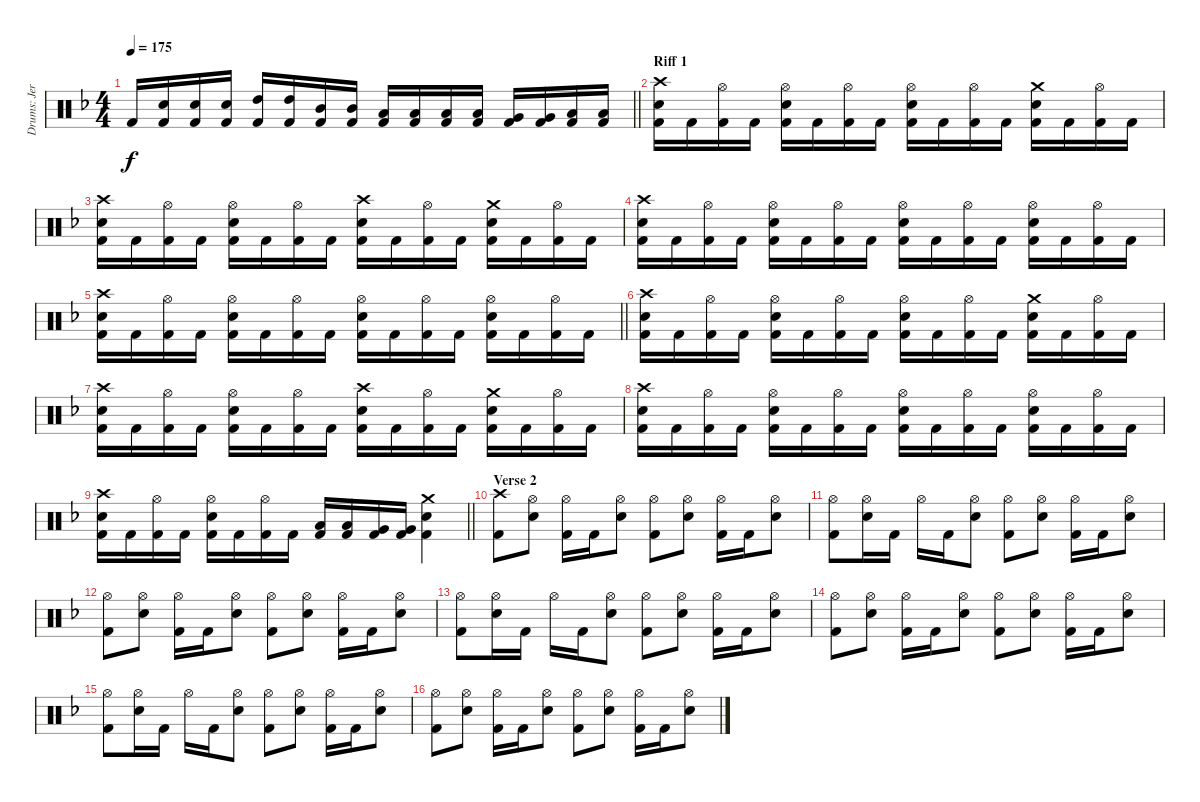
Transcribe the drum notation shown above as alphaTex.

\track ("Drums: Jere Luokkamäki" "Drums: Jer") {instrument percussion}
\staff {score}
\articulation defaults
\ts (4 4)
\tempo 175
\clef neutral
\barLineRight lightlight
\ks dminor "Kick (hit) 2".16{dy f}
("Electric Snare (hit)" "Kick (hit) 2").16 ("Electric Snare (hit)" "Kick (hit) 2").16 ("Electric Snare (hit)" "Kick (hit) 2").16 ("High Tom (hit)" "Kick (hit) 2").16 ("High Tom (hit)" "Kick (hit) 2").16 ("Mid Tom (hit)" "Kick (hit) 2").16 ("Mid Tom (hit)" "Kick (hit) 2").16 ("Low Tom (hit)" "Kick (hit) 2").16 ("Low Tom (hit)" "Kick (hit) 2").16 ("Low Tom (hit)" "Kick (hit) 2").16 ("Low Tom (hit)" "Kick (hit) 2").16 ("Very Low Tom (hit)" "Kick (hit) 2").16 ("Very Low Tom (hit)" "Kick (hit) 2").16 ("Low Floor Tom (hit)" "Kick (hit) 2").16 ("Low Floor Tom (hit)" "Kick (hit) 2").16 |
\section ("" "Riff 1")
("Crash high (hit)" "Electric Snare (hit)" "Kick (hit) 2").16 "Kick (hit) 2".16 ("Hi-Hat (open)" "Kick (hit) 2").16 "Kick (hit) 2".16 ("Hi-Hat (open)" "Electric Snare (hit)" "Kick (hit) 2").16 "Kick (hit) 2".16 ("Hi-Hat (open)" "Kick (hit) 2").16 "Kick (hit) 2".16 ("Hi-Hat (open)" "Electric Snare (hit)" "Kick (hit) 2").16 "Kick (hit) 2".16 ("Hi-Hat (open)" "Kick (hit) 2").16 "Kick (hit) 2".16 ("Crash medium (hit)" "Electric Snare (hit)" "Kick (hit) 2").16 "Kick (hit) 2".16 ("Hi-Hat (open)" "Kick (hit) 2").16 "Kick (hit) 2".16 |
("Crash high (hit)" "Electric Snare (hit)" "Kick (hit) 2").16 "Kick (hit) 2".16 ("Hi-Hat (open)" "Kick (hit) 2").16 "Kick (hit) 2".16 ("Hi-Hat (open)" "Electric Snare (hit)" "Kick (hit) 2").16 "Kick (hit) 2".16 ("Hi-Hat (open)" "Kick (hit) 2").16 "Kick (hit) 2".16 ("Crash high (hit)" "Electric Snare (hit)" "Kick (hit) 2").16 "Kick (hit) 2".16 ("Hi-Hat (open)" "Kick (hit) 2").16 "Kick (hit) 2".16 ("Crash medium (hit)" "Electric Snare (hit)" "Kick (hit) 2").16 "Kick (hit) 2".16 ("Hi-Hat (open)" "Kick (hit) 2").16 "Kick (hit) 2".16 |
("Crash high (hit)" "Electric Snare (hit)" "Kick (hit) 2").16 "Kick (hit) 2".16 ("Hi-Hat (open)" "Kick (hit) 2").16 "Kick (hit) 2".16 ("Hi-Hat (open)" "Electric Snare (hit)" "Kick (hit) 2").16 "Kick (hit) 2".16 ("Hi-Hat (open)" "Kick (hit) 2").16 "Kick (hit) 2".16 ("Hi-Hat (open)" "Electric Snare (hit)" "Kick (hit) 2").16 "Kick (hit) 2".16 ("Hi-Hat (open)" "Kick (hit) 2").16 "Kick (hit) 2".16 ("Hi-Hat (open)" "Electric Snare (hit)" "Kick (hit) 2").16 "Kick (hit) 2".16 ("Hi-Hat (open)" "Kick (hit) 2").16 "Kick (hit) 2".16 |
\barLineRight lightlight
("Crash high (hit)" "Electric Snare (hit)" "Kick (hit) 2").16 "Kick (hit) 2".16 ("Hi-Hat (open)" "Kick (hit) 2").16 "Kick (hit) 2".16 ("Hi-Hat (open)" "Electric Snare (hit)" "Kick (hit) 2").16 "Kick (hit) 2".16 ("Hi-Hat (open)" "Kick (hit) 2").16 "Kick (hit) 2".16 ("Hi-Hat (open)" "Electric Snare (hit)" "Kick (hit) 2").16 "Kick (hit) 2".16 ("Hi-Hat (open)" "Kick (hit) 2").16 "Kick (hit) 2".16 ("Hi-Hat (open)" "Electric Snare (hit)" "Kick (hit) 2").16 "Kick (hit) 2".16 ("Hi-Hat (open)" "Kick (hit) 2").16 "Kick (hit) 2".16 |
("Crash high (hit)" "Electric Snare (hit)" "Kick (hit) 2").16 "Kick (hit) 2".16 ("Hi-Hat (open)" "Kick (hit) 2").16 "Kick (hit) 2".16 ("Hi-Hat (open)" "Electric Snare (hit)" "Kick (hit) 2").16 "Kick (hit) 2".16 ("Hi-Hat (open)" "Kick (hit) 2").16 "Kick (hit) 2".16 ("Hi-Hat (open)" "Electric Snare (hit)" "Kick (hit) 2").16 "Kick (hit) 2".16 ("Hi-Hat (open)" "Kick (hit) 2").16 "Kick (hit) 2".16 ("Crash medium (hit)" "Electric Snare (hit)" "Kick (hit) 2").16 "Kick (hit) 2".16 ("Hi-Hat (open)" "Kick (hit) 2").16 "Kick (hit) 2".16 |
("Crash high (hit)" "Electric Snare (hit)" "Kick (hit) 2").16 "Kick (hit) 2".16 ("Hi-Hat (open)" "Kick (hit) 2").16 "Kick (hit) 2".16 ("Hi-Hat (open)" "Electric Snare (hit)" "Kick (hit) 2").16 "Kick (hit) 2".16 ("Hi-Hat (open)" "Kick (hit) 2").16 "Kick (hit) 2".16 ("Crash high (hit)" "Electric Snare (hit)" "Kick (hit) 2").16 "Kick (hit) 2".16 ("Hi-Hat (open)" "Kick (hit) 2").16 "Kick (hit) 2".16 ("Crash medium (hit)" "Electric Snare (hit)" "Kick (hit) 2").16 "Kick (hit) 2".16 ("Hi-Hat (open)" "Kick (hit) 2").16 "Kick (hit) 2".16 |
("Crash high (hit)" "Electric Snare (hit)" "Kick (hit) 2").16 "Kick (hit) 2".16 ("Hi-Hat (open)" "Kick (hit) 2").16 "Kick (hit) 2".16 ("Hi-Hat (open)" "Electric Snare (hit)" "Kick (hit) 2").16 "Kick (hit) 2".16 ("Hi-Hat (open)" "Kick (hit) 2").16 "Kick (hit) 2".16 ("Hi-Hat (open)" "Electric Snare (hit)" "Kick (hit) 2").16 "Kick (hit) 2".16 ("Hi-Hat (open)" "Kick (hit) 2").16 "Kick (hit) 2".16 ("Hi-Hat (open)" "Electric Snare (hit)" "Kick (hit) 2").16 "Kick (hit) 2".16 ("Hi-Hat (open)" "Kick (hit) 2").16 "Kick (hit) 2".16 |
\barLineRight lightlight
("Crash high (hit)" "Electric Snare (hit)" "Kick (hit) 2").16 "Kick (hit) 2".16 ("Hi-Hat (open)" "Kick (hit) 2").16 "Kick (hit) 2".16 ("Hi-Hat (open)" "Electric Snare (hit)" "Kick (hit) 2").16 "Kick (hit) 2".16 ("Hi-Hat (open)" "Kick (hit) 2").16 "Kick (hit) 2".16 ("Low Tom (hit)" "Kick (hit) 2").16 ("Low Tom (hit)" "Kick (hit) 2").16 ("Very Low Tom (hit)" "Kick (hit) 2").16 ("Very Low Tom (hit)" "Kick (hit) 2").16 ("Crash medium (hit)" "Electric Snare (hit)" "Kick (hit) 2").4 |
\section ("" "Verse 2")
("Crash high (hit)" "Kick (hit) 2").8 ("Hi-Hat (open)" "Electric Snare (hit)").8 ("Hi-Hat (open)" "Kick (hit) 2").16 "Kick (hit) 2".16 ("Hi-Hat (open)" "Electric Snare (hit)").8 ("Hi-Hat (open)" "Kick (hit) 2").8 ("Hi-Hat (open)" "Electric Snare (hit)").8 ("Hi-Hat (open)" "Kick (hit) 2").16 "Kick (hit) 2".16 ("Hi-Hat (open)" "Electric Snare (hit)").8 |
("Hi-Hat (open)" "Kick (hit) 2").8 ("Hi-Hat (open)" "Electric Snare (hit)").16 "Kick (hit) 2".16 "Hi-Hat (open)".16 "Kick (hit) 2".16 ("Hi-Hat (open)" "Electric Snare (hit)").8 ("Hi-Hat (open)" "Kick (hit) 2").8 ("Hi-Hat (open)" "Electric Snare (hit)").8 ("Hi-Hat (open)" "Kick (hit) 2").16 "Kick (hit) 2".16 ("Hi-Hat (open)" "Electric Snare (hit)").8 |
("Hi-Hat (open)" "Kick (hit) 2").8 ("Hi-Hat (open)" "Electric Snare (hit)").8 ("Hi-Hat (open)" "Kick (hit) 2").16 "Kick (hit) 2".16 ("Hi-Hat (open)" "Electric Snare (hit)").8 ("Hi-Hat (open)" "Kick (hit) 2").8 ("Hi-Hat (open)" "Electric Snare (hit)").8 ("Hi-Hat (open)" "Kick (hit) 2").16 "Kick (hit) 2".16 ("Hi-Hat (open)" "Electric Snare (hit)").8 |
("Hi-Hat (open)" "Kick (hit) 2").8 ("Hi-Hat (open)" "Electric Snare (hit)").16 "Kick (hit) 2".16 "Hi-Hat (open)".16 "Kick (hit) 2".16 ("Hi-Hat (open)" "Electric Snare (hit)").8 ("Hi-Hat (open)" "Kick (hit) 2").8 ("Hi-Hat (open)" "Electric Snare (hit)").8 ("Hi-Hat (open)" "Kick (hit) 2").16 "Kick (hit) 2".16 ("Hi-Hat (open)" "Electric Snare (hit)").8 |
("Hi-Hat (open)" "Kick (hit) 2").8 ("Hi-Hat (open)" "Electric Snare (hit)").8 ("Hi-Hat (open)" "Kick (hit) 2").16 "Kick (hit) 2".16 ("Hi-Hat (open)" "Electric Snare (hit)").8 ("Hi-Hat (open)" "Kick (hit) 2").8 ("Hi-Hat (open)" "Electric Snare (hit)").8 ("Hi-Hat (open)" "Kick (hit) 2").16 "Kick (hit) 2".16 ("Hi-Hat (open)" "Electric Snare (hit)").8 |
("Hi-Hat (open)" "Kick (hit) 2").8 ("Hi-Hat (open)" "Electric Snare (hit)").16 "Kick (hit) 2".16 "Hi-Hat (open)".16 "Kick (hit) 2".16 ("Hi-Hat (open)" "Electric Snare (hit)").8 ("Hi-Hat (open)" "Kick (hit) 2").8 ("Hi-Hat (open)" "Electric Snare (hit)").8 ("Hi-Hat (open)" "Kick (hit) 2").16 "Kick (hit) 2".16 ("Hi-Hat (open)" "Electric Snare (hit)").8 |
("Hi-Hat (open)" "Kick (hit) 2").8 ("Hi-Hat (open)" "Electric Snare (hit)").8 ("Hi-Hat (open)" "Kick (hit) 2").16 "Kick (hit) 2".16 ("Hi-Hat (open)" "Electric Snare (hit)").8 ("Hi-Hat (open)" "Kick (hit) 2").8 ("Hi-Hat (open)" "Electric Snare (hit)").8 ("Hi-Hat (open)" "Kick (hit) 2").16 "Kick (hit) 2".16 ("Hi-Hat (open)" "Electric Snare (hit)").8
